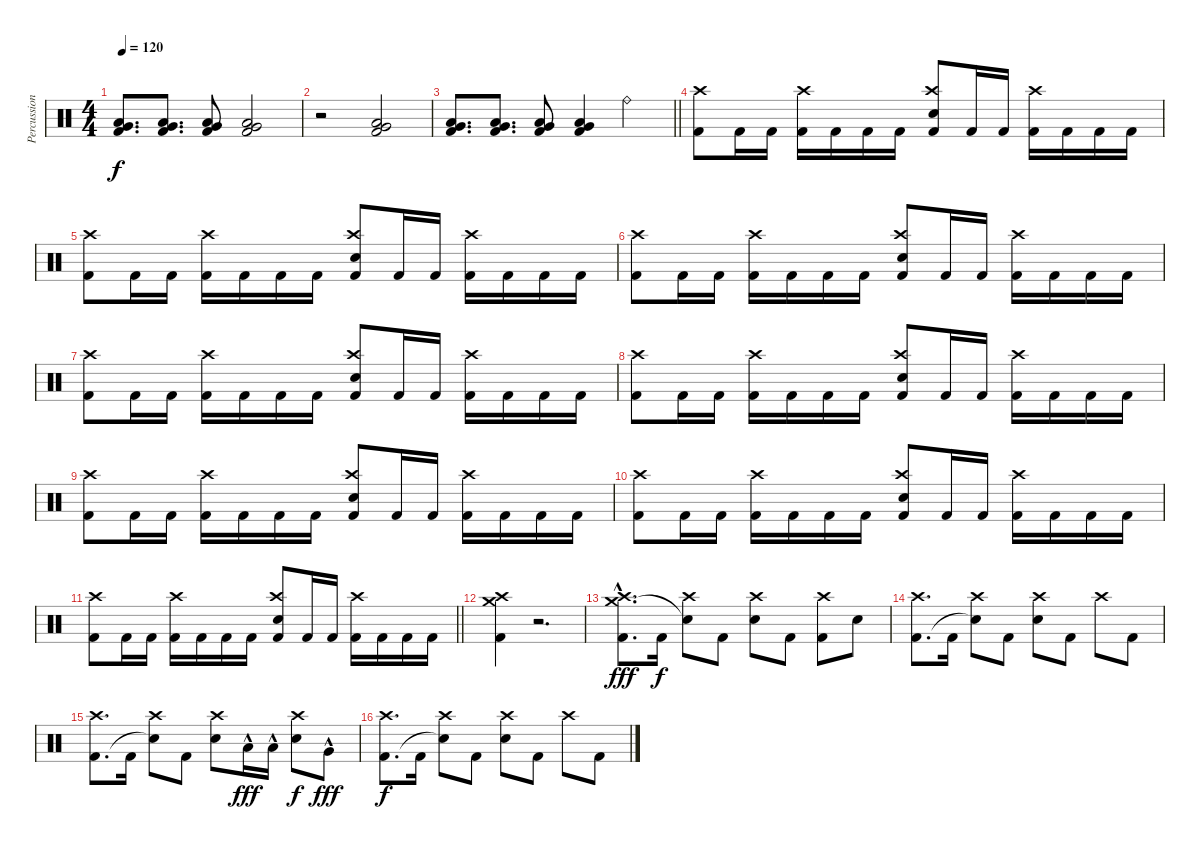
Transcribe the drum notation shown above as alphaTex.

\track ("Percussion" "Percussion") {instrument percussion}
\staff {score}
\articulation defaults
\ts (4 4)
\tempo 120
\clef neutral
\ks c
("Low Floor Tom (hit)" "Very Low Tom (hit)" "Kick (hit) 2").8{d dy f} ("Low Floor Tom (hit)" "Very Low Tom (hit)" "Kick (hit) 2").8{d} ("Low Floor Tom (hit)" "Very Low Tom (hit)" "Kick (hit) 2").8 ("Low Floor Tom (hit)" "Very Low Tom (hit)" "Kick (hit) 2").2 |
r.2 ("Low Floor Tom (hit)" "Very Low Tom (hit)" "Kick (hit) 2").2 |
\barLineRight lightlight
("Low Floor Tom (hit)" "Very Low Tom (hit)" "Kick (hit) 2").8{d} ("Low Floor Tom (hit)" "Very Low Tom (hit)" "Kick (hit) 2").8{d} ("Low Floor Tom (hit)" "Very Low Tom (hit)" "Kick (hit) 2").8 ("Low Floor Tom (hit)" "Very Low Tom (hit)" "Kick (hit) 2").4 "Ride (bell)".4 |
\section ("" "")
("Crash high (hit)" "Kick (hit) 2").8 "Kick (hit) 2".16 "Kick (hit) 2".16 ("Crash high (hit)" "Kick (hit) 2").16 "Kick (hit) 2".16 "Kick (hit) 2".16 "Kick (hit) 2".16 ("Crash high (hit)" "Snare (hit) 2" "Kick (hit) 2").8 "Kick (hit) 2".16 "Kick (hit) 2".16 ("Crash high (hit)" "Kick (hit) 2").16 "Kick (hit) 2".16 "Kick (hit) 2".16 "Kick (hit) 2".16 |
("Crash high (hit)" "Kick (hit) 2").8 "Kick (hit) 2".16 "Kick (hit) 2".16 ("Crash high (hit)" "Kick (hit) 2").16 "Kick (hit) 2".16 "Kick (hit) 2".16 "Kick (hit) 2".16 ("Crash high (hit)" "Snare (hit) 2" "Kick (hit) 2").8 "Kick (hit) 2".16 "Kick (hit) 2".16 ("Crash high (hit)" "Kick (hit) 2").16 "Kick (hit) 2".16 "Kick (hit) 2".16 "Kick (hit) 2".16 |
("Crash high (hit)" "Kick (hit) 2").8 "Kick (hit) 2".16 "Kick (hit) 2".16 ("Crash high (hit)" "Kick (hit) 2").16 "Kick (hit) 2".16 "Kick (hit) 2".16 "Kick (hit) 2".16 ("Crash high (hit)" "Snare (hit) 2" "Kick (hit) 2").8 "Kick (hit) 2".16 "Kick (hit) 2".16 ("Crash high (hit)" "Kick (hit) 2").16 "Kick (hit) 2".16 "Kick (hit) 2".16 "Kick (hit) 2".16 |
("Crash high (hit)" "Kick (hit) 2").8 "Kick (hit) 2".16 "Kick (hit) 2".16 ("Crash high (hit)" "Kick (hit) 2").16 "Kick (hit) 2".16 "Kick (hit) 2".16 "Kick (hit) 2".16 ("Crash high (hit)" "Snare (hit) 2" "Kick (hit) 2").8 "Kick (hit) 2".16 "Kick (hit) 2".16 ("Crash high (hit)" "Kick (hit) 2").16 "Kick (hit) 2".16 "Kick (hit) 2".16 "Kick (hit) 2".16 |
("Crash high (hit)" "Kick (hit) 2").8 "Kick (hit) 2".16 "Kick (hit) 2".16 ("Crash high (hit)" "Kick (hit) 2").16 "Kick (hit) 2".16 "Kick (hit) 2".16 "Kick (hit) 2".16 ("Crash high (hit)" "Snare (hit) 2" "Kick (hit) 2").8 "Kick (hit) 2".16 "Kick (hit) 2".16 ("Crash high (hit)" "Kick (hit) 2").16 "Kick (hit) 2".16 "Kick (hit) 2".16 "Kick (hit) 2".16 |
("Crash high (hit)" "Kick (hit) 2").8 "Kick (hit) 2".16 "Kick (hit) 2".16 ("Crash high (hit)" "Kick (hit) 2").16 "Kick (hit) 2".16 "Kick (hit) 2".16 "Kick (hit) 2".16 ("Crash high (hit)" "Snare (hit) 2" "Kick (hit) 2").8 "Kick (hit) 2".16 "Kick (hit) 2".16 ("Crash high (hit)" "Kick (hit) 2").16 "Kick (hit) 2".16 "Kick (hit) 2".16 "Kick (hit) 2".16 |
("Crash high (hit)" "Kick (hit) 2").8 "Kick (hit) 2".16 "Kick (hit) 2".16 ("Crash high (hit)" "Kick (hit) 2").16 "Kick (hit) 2".16 "Kick (hit) 2".16 "Kick (hit) 2".16 ("Crash high (hit)" "Snare (hit) 2" "Kick (hit) 2").8 "Kick (hit) 2".16 "Kick (hit) 2".16 ("Crash high (hit)" "Kick (hit) 2").16 "Kick (hit) 2".16 "Kick (hit) 2".16 "Kick (hit) 2".16 |
\barLineRight lightlight
("Crash high (hit)" "Kick (hit) 2").8 "Kick (hit) 2".16 "Kick (hit) 2".16 ("Crash high (hit)" "Kick (hit) 2").16 "Kick (hit) 2".16 "Kick (hit) 2".16 "Kick (hit) 2".16 ("Crash high (hit)" "Snare (hit) 2" "Kick (hit) 2").8 "Kick (hit) 2".16 "Kick (hit) 2".16 ("Crash high (hit)" "Kick (hit) 2").16 "Kick (hit) 2".16 "Kick (hit) 2".16 "Kick (hit) 2".16 |
\section ("" "")
("Crash high (hit)" "Crash medium (hit)" "Kick (hit) 2").4 r.2{d} |
("Crash high (hit)"{hac} "Crash medium (hit)"{hac} "Kick (hit) 2").8{d dy fff} "Kick (hit) 2".16{dy f} ("Crash high (hit)" "Snare (hit)"{t}).8 "Kick (hit) 2".8 ("Crash high (hit)" "Snare (hit) 2").8 "Kick (hit) 2".8 ("Crash high (hit)" "Kick (hit) 2").8 "Snare (hit) 2".8 |
("Crash high (hit)" "Kick (hit) 2").8{d} "Kick (hit) 2".16 ("Crash high (hit)" "Snare (hit)"{t}).8 "Kick (hit) 2".8 ("Crash high (hit)" "Snare (hit) 2").8 "Kick (hit) 2".8 "Crash high (hit)".8 "Kick (hit) 2".8 |
("Crash high (hit)" "Kick (hit) 2").8{d} "Kick (hit) 2".16 ("Crash high (hit)" "Snare (hit)"{t}).8 "Kick (hit) 2".8 ("Crash high (hit)" "Snare (hit) 2").8 "Low Tom (hit)"{hac}.16{dy fff} "Low Tom (hit)"{hac}.16 ("Crash high (hit)" "Snare (hit) 2").8{dy f} "Very Low Tom (hit)"{hac}.8{dy fff} |
("Crash high (hit)" "Kick (hit) 2").8{d dy f} "Kick (hit) 2".16 ("Crash high (hit)" "Snare (hit)"{t}).8 "Kick (hit) 2".8 ("Crash high (hit)" "Snare (hit) 2").8 "Kick (hit) 2".8 "Crash high (hit)".8 "Kick (hit) 2".8
